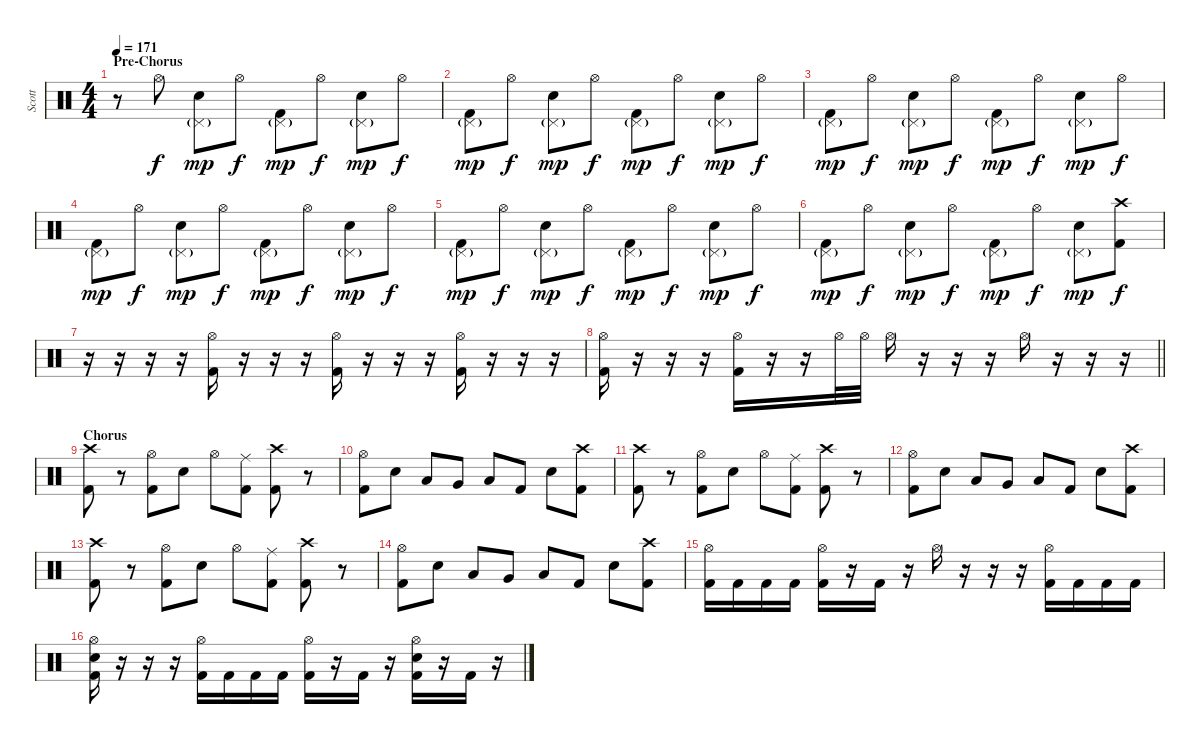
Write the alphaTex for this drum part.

\track ("Scott" "Scott") {instrument percussion}
\staff {score}
\articulation defaults
\ts (4 4)
\section ("" "Pre-Chorus")
\tempo 171
\clef neutral
\ks c
r.8{dy f} "Hi-Hat (open)".8 ("Pedal Hi-Hat (hit)"{g} "Electric Snare (hit)").8{dy mp} "Hi-Hat (open)".8{dy f} ("Pedal Hi-Hat (hit)"{g} "Kick (hit) 2").8{dy mp} "Hi-Hat (open)".8{dy f} ("Pedal Hi-Hat (hit)"{g} "Electric Snare (hit)").8{dy mp} "Hi-Hat (open)".8{dy f} |
("Pedal Hi-Hat (hit)"{g} "Kick (hit) 2").8{dy mp} "Hi-Hat (open)".8{dy f} ("Pedal Hi-Hat (hit)"{g} "Electric Snare (hit)").8{dy mp} "Hi-Hat (open)".8{dy f} ("Pedal Hi-Hat (hit)"{g} "Kick (hit) 2").8{dy mp} "Hi-Hat (open)".8{dy f} ("Pedal Hi-Hat (hit)"{g} "Electric Snare (hit)").8{dy mp} "Hi-Hat (open)".8{dy f} |
("Pedal Hi-Hat (hit)"{g} "Kick (hit) 2").8{dy mp} "Hi-Hat (open)".8{dy f} ("Pedal Hi-Hat (hit)"{g} "Electric Snare (hit)").8{dy mp} "Hi-Hat (open)".8{dy f} ("Pedal Hi-Hat (hit)"{g} "Kick (hit) 2").8{dy mp} "Hi-Hat (open)".8{dy f} ("Pedal Hi-Hat (hit)"{g} "Electric Snare (hit)").8{dy mp} "Hi-Hat (open)".8{dy f} |
("Pedal Hi-Hat (hit)"{g} "Kick (hit) 2").8{dy mp} "Hi-Hat (open)".8{dy f} ("Pedal Hi-Hat (hit)"{g} "Electric Snare (hit)").8{dy mp} "Hi-Hat (open)".8{dy f} ("Pedal Hi-Hat (hit)"{g} "Kick (hit) 2").8{dy mp} "Hi-Hat (open)".8{dy f} ("Pedal Hi-Hat (hit)"{g} "Electric Snare (hit)").8{dy mp} "Hi-Hat (open)".8{dy f} |
("Pedal Hi-Hat (hit)"{g} "Kick (hit) 2").8{dy mp} "Hi-Hat (open)".8{dy f} ("Pedal Hi-Hat (hit)"{g} "Electric Snare (hit)").8{dy mp} "Hi-Hat (open)".8{dy f} ("Pedal Hi-Hat (hit)"{g} "Kick (hit) 2").8{dy mp} "Hi-Hat (open)".8{dy f} ("Pedal Hi-Hat (hit)"{g} "Electric Snare (hit)").8{dy mp} "Hi-Hat (open)".8{dy f} |
("Pedal Hi-Hat (hit)"{g} "Kick (hit) 2").8{dy mp} "Hi-Hat (open)".8{dy f} ("Pedal Hi-Hat (hit)"{g} "Electric Snare (hit)").8{dy mp} "Hi-Hat (open)".8{dy f} ("Pedal Hi-Hat (hit)"{g} "Kick (hit) 2").8{dy mp} "Hi-Hat (open)".8{dy f} ("Pedal Hi-Hat (hit)"{g} "Electric Snare (hit)").8{dy mp} ("Crash high (hit)" "Kick (hit) 2").8{dy f} |
r.16 r.16 r.16 r.16 ("Hi-Hat (open)" "Kick (hit) 2").16 r.16 r.16 r.16 ("Hi-Hat (open)" "Kick (hit) 2").16 r.16 r.16 r.16 ("Hi-Hat (open)" "Kick (hit) 2").16 r.16 r.16 r.16 |
\barLineRight lightlight
("Hi-Hat (open)" "Kick (hit) 2").16 r.16 r.16 r.16 ("Hi-Hat (open)" "Kick (hit) 2").16 r.16 r.16 "Hi-Hat (open)".32 "Hi-Hat (open)".32 "Hi-Hat (open)".16 r.16 r.16 r.16 "Hi-Hat (open)".16 r.16 r.16 r.16 |
\section ("" "Chorus")
("Crash high (hit)" "Kick (hit) 2").8 r.8 ("Hi-Hat (open)" "Kick (hit) 2").8 "Electric Snare (hit)".8 "Hi-Hat (open)".8 ("Ride (middle)" "Kick (hit) 2").8 ("Crash high (hit)" "Kick (hit) 2").8 r.8 |
("Hi-Hat (open)" "Kick (hit) 2").8 "Electric Snare (hit)".8 "Low Tom (hit)".8 "Very Low Tom (hit)".8 "Low Floor Tom (hit)".8 "Kick (hit) 2".8 "Electric Snare (hit)".8 ("Crash high (hit)" "Kick (hit) 2").8 |
("Crash high (hit)" "Kick (hit) 2").8 r.8 ("Hi-Hat (open)" "Kick (hit) 2").8 "Electric Snare (hit)".8 "Hi-Hat (open)".8 ("Ride (middle)" "Kick (hit) 2").8 ("Crash high (hit)" "Kick (hit) 2").8 r.8 |
("Hi-Hat (open)" "Kick (hit) 2").8 "Electric Snare (hit)".8 "Low Tom (hit)".8 "Very Low Tom (hit)".8 "Low Floor Tom (hit)".8 "Kick (hit) 2".8 "Electric Snare (hit)".8 ("Crash high (hit)" "Kick (hit) 2").8 |
("Crash high (hit)" "Kick (hit) 2").8 r.8 ("Hi-Hat (open)" "Kick (hit) 2").8 "Electric Snare (hit)".8 "Hi-Hat (open)".8 ("Ride (middle)" "Kick (hit) 2").8 ("Crash high (hit)" "Kick (hit) 2").8 r.8 |
("Hi-Hat (open)" "Kick (hit) 2").8 "Electric Snare (hit)".8 "Low Tom (hit)".8 "Very Low Tom (hit)".8 "Low Floor Tom (hit)".8 "Kick (hit) 2".8 "Electric Snare (hit)".8 ("Crash high (hit)" "Kick (hit) 2").8 |
("Hi-Hat (open)" "Kick (hit) 2").16 "Kick (hit) 2".16 "Kick (hit) 2".16 "Kick (hit) 2".16 ("Hi-Hat (open)" "Kick (hit) 2").16 r.16 "Kick (hit) 2".16 r.16 "Hi-Hat (open)".16 r.16 r.16 r.16 ("Hi-Hat (open)" "Kick (hit) 2").16 "Kick (hit) 2".16 "Kick (hit) 2".16 "Kick (hit) 2".16 |
("Hi-Hat (open)" "Electric Snare (hit)" "Kick (hit) 2").16 r.16 r.16 r.16 ("Hi-Hat (open)" "Kick (hit) 2").16 "Kick (hit) 2".16 "Kick (hit) 2".16 "Kick (hit) 2".16 ("Hi-Hat (open)" "Kick (hit) 2").16 r.16 "Kick (hit) 2".16 r.16 ("Hi-Hat (open)" "Electric Snare (hit)" "Kick (hit) 2").16 r.16 "Kick (hit) 2".16 r.16
